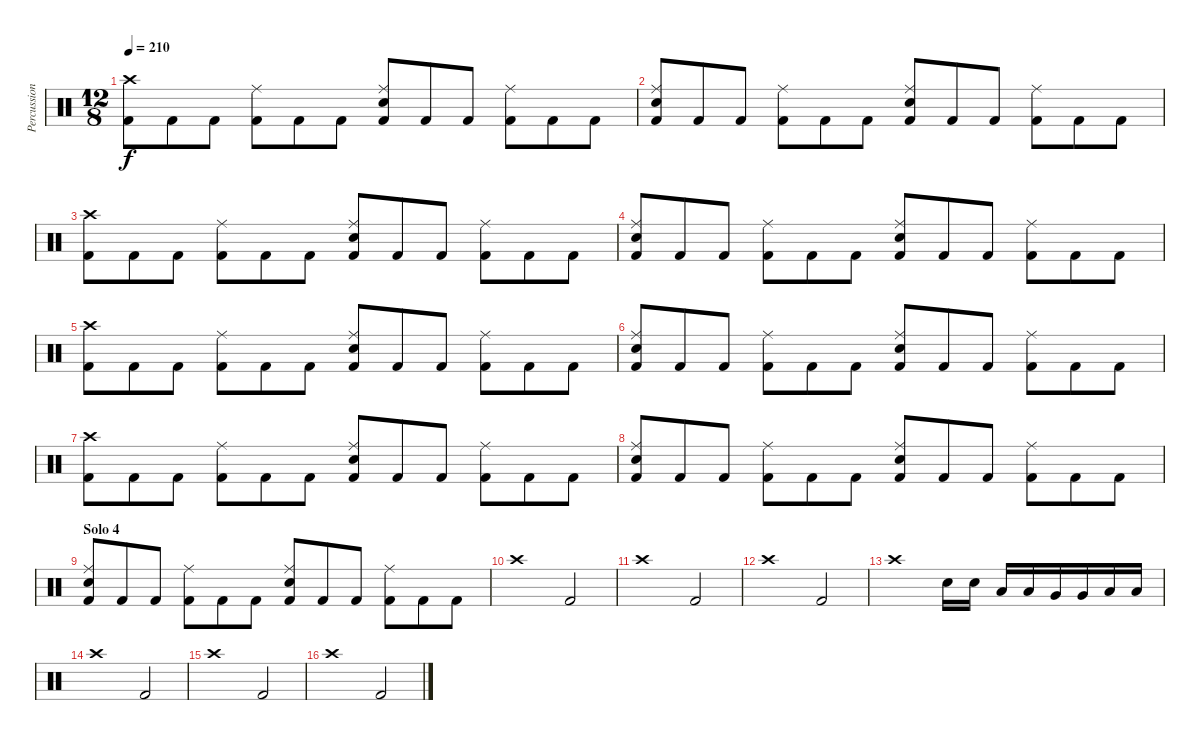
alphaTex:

\track ("Percussion" "Percussion") {instrument percussion}
\staff {score}
\articulation defaults
\ts (12 8)
\tempo 210
\clef neutral
\ks c
("Crash high (hit)" "Kick (hit) 2").8{dy f} "Kick (hit) 2".8 "Kick (hit) 2".8 ("Ride (middle)" "Kick (hit) 2").8 "Kick (hit) 2".8 "Kick (hit) 2".8 ("Ride (middle)" "Snare (hit) 2" "Kick (hit) 2").8 "Kick (hit) 2".8 "Kick (hit) 2".8 ("Ride (middle)" "Kick (hit) 2").8 "Kick (hit) 2".8 "Kick (hit) 2".8 |
("Ride (middle)" "Snare (hit) 2" "Kick (hit) 2").8 "Kick (hit) 2".8 "Kick (hit) 2".8 ("Ride (middle)" "Kick (hit) 2").8 "Kick (hit) 2".8 "Kick (hit) 2".8 ("Ride (middle)" "Snare (hit) 2" "Kick (hit) 2").8 "Kick (hit) 2".8 "Kick (hit) 2".8 ("Ride (middle)" "Kick (hit) 2").8 "Kick (hit) 2".8 "Kick (hit) 2".8 |
("Crash high (hit)" "Kick (hit) 2").8 "Kick (hit) 2".8 "Kick (hit) 2".8 ("Ride (middle)" "Kick (hit) 2").8 "Kick (hit) 2".8 "Kick (hit) 2".8 ("Ride (middle)" "Snare (hit) 2" "Kick (hit) 2").8 "Kick (hit) 2".8 "Kick (hit) 2".8 ("Ride (middle)" "Kick (hit) 2").8 "Kick (hit) 2".8 "Kick (hit) 2".8 |
("Ride (middle)" "Snare (hit) 2" "Kick (hit) 2").8 "Kick (hit) 2".8 "Kick (hit) 2".8 ("Ride (middle)" "Kick (hit) 2").8 "Kick (hit) 2".8 "Kick (hit) 2".8 ("Ride (middle)" "Snare (hit) 2" "Kick (hit) 2").8 "Kick (hit) 2".8 "Kick (hit) 2".8 ("Ride (middle)" "Kick (hit) 2").8 "Kick (hit) 2".8 "Kick (hit) 2".8 |
("Crash high (hit)" "Kick (hit) 2").8 "Kick (hit) 2".8 "Kick (hit) 2".8 ("Ride (middle)" "Kick (hit) 2").8 "Kick (hit) 2".8 "Kick (hit) 2".8 ("Ride (middle)" "Snare (hit) 2" "Kick (hit) 2").8 "Kick (hit) 2".8 "Kick (hit) 2".8 ("Ride (middle)" "Kick (hit) 2").8 "Kick (hit) 2".8 "Kick (hit) 2".8 |
("Ride (middle)" "Snare (hit) 2" "Kick (hit) 2").8 "Kick (hit) 2".8 "Kick (hit) 2".8 ("Ride (middle)" "Kick (hit) 2").8 "Kick (hit) 2".8 "Kick (hit) 2".8 ("Ride (middle)" "Snare (hit) 2" "Kick (hit) 2").8 "Kick (hit) 2".8 "Kick (hit) 2".8 ("Ride (middle)" "Kick (hit) 2").8 "Kick (hit) 2".8 "Kick (hit) 2".8 |
("Crash high (hit)" "Kick (hit) 2").8 "Kick (hit) 2".8 "Kick (hit) 2".8 ("Ride (middle)" "Kick (hit) 2").8 "Kick (hit) 2".8 "Kick (hit) 2".8 ("Ride (middle)" "Snare (hit) 2" "Kick (hit) 2").8 "Kick (hit) 2".8 "Kick (hit) 2".8 ("Ride (middle)" "Kick (hit) 2").8 "Kick (hit) 2".8 "Kick (hit) 2".8 |
("Ride (middle)" "Snare (hit) 2" "Kick (hit) 2").8 "Kick (hit) 2".8 "Kick (hit) 2".8 ("Ride (middle)" "Kick (hit) 2").8 "Kick (hit) 2".8 "Kick (hit) 2".8 ("Ride (middle)" "Snare (hit) 2" "Kick (hit) 2").8 "Kick (hit) 2".8 "Kick (hit) 2".8 ("Ride (middle)" "Kick (hit) 2").8 "Kick (hit) 2".8 "Kick (hit) 2".8 |
\section ("" "Solo 4")
("Ride (middle)" "Snare (hit) 2" "Kick (hit) 2").8 "Kick (hit) 2".8 "Kick (hit) 2".8 ("Ride (middle)" "Kick (hit) 2").8 "Kick (hit) 2".8 "Kick (hit) 2".8 ("Ride (middle)" "Snare (hit) 2" "Kick (hit) 2").8 "Kick (hit) 2".8 "Kick (hit) 2".8 ("Ride (middle)" "Kick (hit) 2").8 "Kick (hit) 2".8 "Kick (hit) 2".8 |
"Crash high (hit)".1 "Kick (hit) 2".2 |
"Crash high (hit)".1 "Kick (hit) 2".2 |
"Crash high (hit)".1 "Kick (hit) 2".2 |
"Crash high (hit)".1 "Snare (hit) 2".16 "Snare (hit) 2".16 "Low Tom (hit)".16 "Low Tom (hit)".16 "Very Low Tom (hit)".16 "Very Low Tom (hit)".16 "Low Floor Tom (hit)".16 "Low Floor Tom (hit)".16 |
"Crash high (hit)".1 "Kick (hit) 2".2 |
"Crash high (hit)".1 "Kick (hit) 2".2 |
"Crash high (hit)".1 "Kick (hit) 2".2
